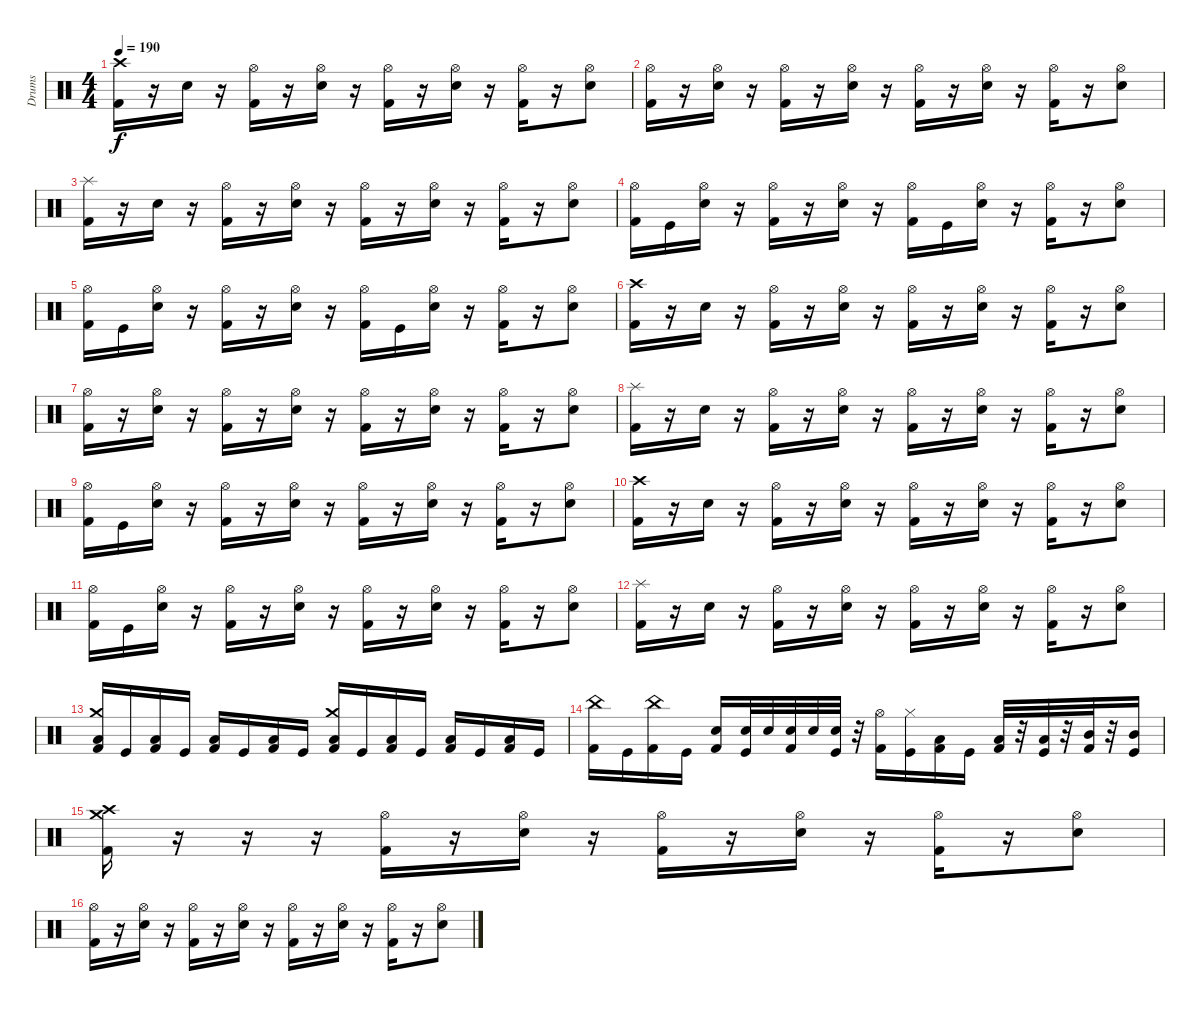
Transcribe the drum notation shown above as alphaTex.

\track ("Drums" "Drums") {instrument percussion}
\staff {score}
\articulation defaults
\ts (4 4)
\tempo 190
\clef neutral
\ks c
("Crash high (hit)" "Kick (hit) 2").16{dy f} r.16 "Electric Snare (hit)".16 r.16 ("Hi-Hat (open)" "Kick (hit) 2").16 r.16 ("Hi-Hat (open)" "Electric Snare (hit)").16 r.16 ("Hi-Hat (open)" "Kick (hit) 2").16 r.16 ("Hi-Hat (open)" "Electric Snare (hit)").16 r.16 ("Hi-Hat (open)" "Kick (hit) 2").16 r.16 ("Hi-Hat (open)" "Electric Snare (hit)").8 |
("Hi-Hat (open)" "Kick (hit) 2").16 r.16 ("Hi-Hat (open)" "Electric Snare (hit)").16 r.16 ("Hi-Hat (open)" "Kick (hit) 2").16 r.16 ("Hi-Hat (open)" "Electric Snare (hit)").16 r.16 ("Hi-Hat (open)" "Kick (hit) 2").16 r.16 ("Hi-Hat (open)" "Electric Snare (hit)").16 r.16 ("Hi-Hat (open)" "Kick (hit) 2").16 r.16 ("Hi-Hat (open)" "Electric Snare (hit)").8 |
("Splash (hit)" "Kick (hit) 2").16 r.16 "Electric Snare (hit)".16 r.16 ("Hi-Hat (open)" "Kick (hit) 2").16 r.16 ("Hi-Hat (open)" "Electric Snare (hit)").16 r.16 ("Hi-Hat (open)" "Kick (hit) 2").16 r.16 ("Hi-Hat (open)" "Electric Snare (hit)").16 r.16 ("Hi-Hat (open)" "Kick (hit) 2").16 r.16 ("Hi-Hat (open)" "Electric Snare (hit)").8 |
("Hi-Hat (open)" "Kick (hit) 2").16 "Kick (hit)".16 ("Hi-Hat (open)" "Electric Snare (hit)").16 r.16 ("Hi-Hat (open)" "Kick (hit) 2").16 r.16 ("Hi-Hat (open)" "Electric Snare (hit)").16 r.16 ("Hi-Hat (open)" "Kick (hit) 2").16 "Kick (hit)".16 ("Hi-Hat (open)" "Electric Snare (hit)").16 r.16 ("Hi-Hat (open)" "Kick (hit) 2").16 r.16 ("Hi-Hat (open)" "Electric Snare (hit)").8 |
("Hi-Hat (open)" "Kick (hit) 2").16 "Kick (hit)".16 ("Hi-Hat (open)" "Electric Snare (hit)").16 r.16 ("Hi-Hat (open)" "Kick (hit) 2").16 r.16 ("Hi-Hat (open)" "Electric Snare (hit)").16 r.16 ("Hi-Hat (open)" "Kick (hit) 2").16 "Kick (hit)".16 ("Hi-Hat (open)" "Electric Snare (hit)").16 r.16 ("Hi-Hat (open)" "Kick (hit) 2").16 r.16 ("Hi-Hat (open)" "Electric Snare (hit)").8 |
("Crash high (hit)" "Kick (hit) 2").16 r.16 "Electric Snare (hit)".16 r.16 ("Hi-Hat (open)" "Kick (hit) 2").16 r.16 ("Hi-Hat (open)" "Electric Snare (hit)").16 r.16 ("Hi-Hat (open)" "Kick (hit) 2").16 r.16 ("Hi-Hat (open)" "Electric Snare (hit)").16 r.16 ("Hi-Hat (open)" "Kick (hit) 2").16 r.16 ("Hi-Hat (open)" "Electric Snare (hit)").8 |
("Hi-Hat (open)" "Kick (hit) 2").16 r.16 ("Hi-Hat (open)" "Electric Snare (hit)").16 r.16 ("Hi-Hat (open)" "Kick (hit) 2").16 r.16 ("Hi-Hat (open)" "Electric Snare (hit)").16 r.16 ("Hi-Hat (open)" "Kick (hit) 2").16 r.16 ("Hi-Hat (open)" "Electric Snare (hit)").16 r.16 ("Hi-Hat (open)" "Kick (hit) 2").16 r.16 ("Hi-Hat (open)" "Electric Snare (hit)").8 |
("Splash (hit)" "Kick (hit) 2").16 r.16 "Electric Snare (hit)".16 r.16 ("Hi-Hat (open)" "Kick (hit) 2").16 r.16 ("Hi-Hat (open)" "Electric Snare (hit)").16 r.16 ("Hi-Hat (open)" "Kick (hit) 2").16 r.16 ("Hi-Hat (open)" "Electric Snare (hit)").16 r.16 ("Hi-Hat (open)" "Kick (hit) 2").16 r.16 ("Hi-Hat (open)" "Electric Snare (hit)").8 |
("Hi-Hat (open)" "Kick (hit) 2").16 "Kick (hit)".16 ("Hi-Hat (open)" "Electric Snare (hit)").16 r.16 ("Hi-Hat (open)" "Kick (hit) 2").16 r.16 ("Hi-Hat (open)" "Electric Snare (hit)").16 r.16 ("Hi-Hat (open)" "Kick (hit) 2").16 r.16 ("Hi-Hat (open)" "Electric Snare (hit)").16 r.16 ("Hi-Hat (open)" "Kick (hit) 2").16 r.16 ("Hi-Hat (open)" "Electric Snare (hit)").8 |
("Crash high (hit)" "Kick (hit) 2").16 r.16 "Electric Snare (hit)".16 r.16 ("Hi-Hat (open)" "Kick (hit) 2").16 r.16 ("Hi-Hat (open)" "Electric Snare (hit)").16 r.16 ("Hi-Hat (open)" "Kick (hit) 2").16 r.16 ("Hi-Hat (open)" "Electric Snare (hit)").16 r.16 ("Hi-Hat (open)" "Kick (hit) 2").16 r.16 ("Hi-Hat (open)" "Electric Snare (hit)").8 |
("Hi-Hat (open)" "Kick (hit) 2").16 "Kick (hit)".16 ("Hi-Hat (open)" "Electric Snare (hit)").16 r.16 ("Hi-Hat (open)" "Kick (hit) 2").16 r.16 ("Hi-Hat (open)" "Electric Snare (hit)").16 r.16 ("Hi-Hat (open)" "Kick (hit) 2").16 r.16 ("Hi-Hat (open)" "Electric Snare (hit)").16 r.16 ("Hi-Hat (open)" "Kick (hit) 2").16 r.16 ("Hi-Hat (open)" "Electric Snare (hit)").8 |
("Splash (hit)" "Kick (hit) 2").16 r.16 "Electric Snare (hit)".16 r.16 ("Hi-Hat (open)" "Kick (hit) 2").16 r.16 ("Hi-Hat (open)" "Electric Snare (hit)").16 r.16 ("Hi-Hat (open)" "Kick (hit) 2").16 r.16 ("Hi-Hat (open)" "Electric Snare (hit)").16 r.16 ("Hi-Hat (open)" "Kick (hit) 2").16 r.16 ("Hi-Hat (open)" "Electric Snare (hit)").8 |
("Crash medium (hit)" "Low Tom (hit)" "Kick (hit) 2").16 "Kick (hit)".16 ("Low Tom (hit)" "Kick (hit) 2").16 "Kick (hit)".16 ("Low Tom (hit)" "Kick (hit) 2").16 "Kick (hit)".16 ("Low Tom (hit)" "Kick (hit) 2").16 "Kick (hit)".16 ("Crash medium (hit)" "Low Tom (hit)" "Kick (hit) 2").16 "Kick (hit)".16 ("Low Tom (hit)" "Kick (hit) 2").16 "Kick (hit)".16 ("Low Tom (hit)" "Kick (hit) 2").16 "Kick (hit)".16 ("Low Tom (hit)" "Kick (hit) 2").16 "Kick (hit)".16 |
("China (hit)" "Kick (hit) 2").16 "Kick (hit)".16 ("China (hit)" "Kick (hit) 2").16 "Kick (hit)".16 ("Electric Snare (hit)" "Kick (hit) 2").16 ("Electric Snare (hit)" "Kick (hit)").32 "Electric Snare (hit)".32 ("Electric Snare (hit)" "Kick (hit) 2").32 "Electric Snare (hit)".32 ("Electric Snare (hit)" "Kick (hit)").32 r.32 ("Hi-Hat (open)" "Kick (hit) 2").16 ("Hi-Hat (closed)" "Kick (hit)").16 ("Low Tom (hit)" "Kick (hit) 2").16 "Kick (hit)".16 ("Low Tom (hit)" "Kick (hit) 2").32 r.32 ("Low Tom (hit)" "Kick (hit)").32 r.32 ("Mid Tom (hit)" "Kick (hit) 2").32 r.32 ("Mid Tom (hit)" "Kick (hit)").16 |
("Crash high (hit)" "Crash medium (hit)" "Kick (hit) 2").16 r.16 r.16 r.16 ("Hi-Hat (open)" "Kick (hit) 2").16 r.16 ("Hi-Hat (open)" "Electric Snare (hit)").16 r.16 ("Hi-Hat (open)" "Kick (hit) 2").16 r.16 ("Hi-Hat (open)" "Electric Snare (hit)").16 r.16 ("Hi-Hat (open)" "Kick (hit) 2").16 r.16 ("Hi-Hat (open)" "Electric Snare (hit)").8 |
("Hi-Hat (open)" "Kick (hit) 2").16 r.16 ("Hi-Hat (open)" "Electric Snare (hit)").16 r.16 ("Hi-Hat (open)" "Kick (hit) 2").16 r.16 ("Hi-Hat (open)" "Electric Snare (hit)").16 r.16 ("Hi-Hat (open)" "Kick (hit) 2").16 r.16 ("Hi-Hat (open)" "Electric Snare (hit)").16 r.16 ("Hi-Hat (open)" "Kick (hit) 2").16 r.16 ("Hi-Hat (open)" "Electric Snare (hit)").8
